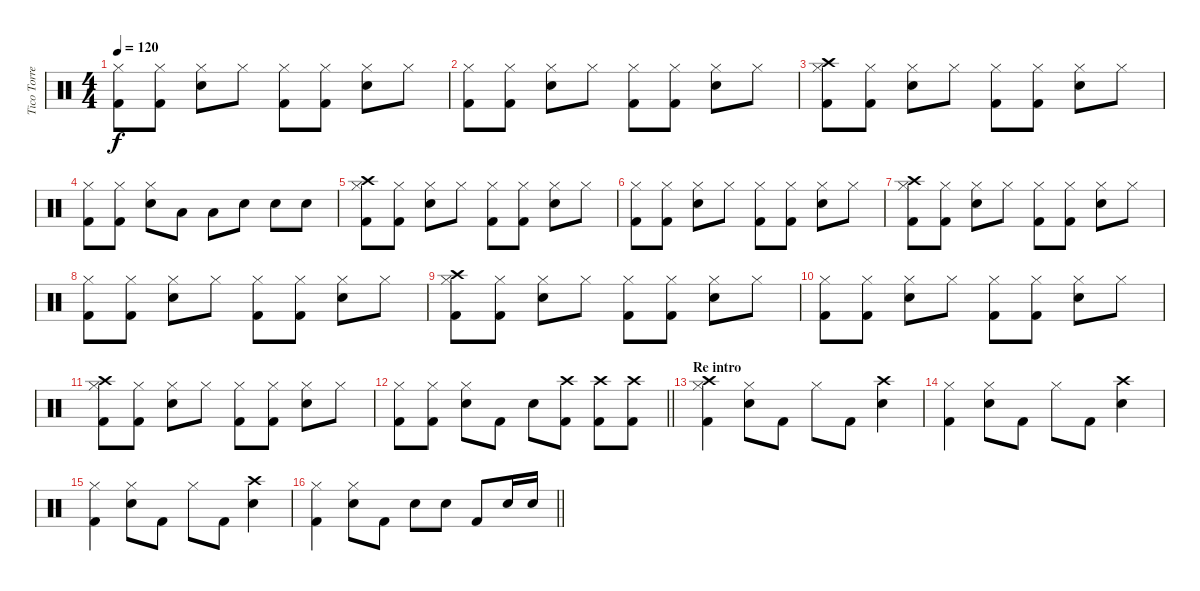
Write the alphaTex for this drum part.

\track ("Tico Torres (Drums)" "Tico Torre") {instrument percussion}
\staff {score}
\articulation defaults
\ts (4 4)
\tempo 120
\clef neutral
\ks c
("Hi-Hat (closed)" "Kick (hit) 2").8{dy f} ("Hi-Hat (closed)" "Kick (hit) 2").8 ("Hi-Hat (closed)" "Electric Snare (hit)").8 "Hi-Hat (closed)".8 ("Hi-Hat (closed)" "Kick (hit) 2").8 ("Hi-Hat (closed)" "Kick (hit) 2").8 ("Hi-Hat (closed)" "Electric Snare (hit)").8 "Hi-Hat (closed)".8 |
("Hi-Hat (closed)" "Kick (hit) 2").8 ("Hi-Hat (closed)" "Kick (hit) 2").8 ("Hi-Hat (closed)" "Electric Snare (hit)").8 "Hi-Hat (closed)".8 ("Hi-Hat (closed)" "Kick (hit) 2").8 ("Hi-Hat (closed)" "Kick (hit) 2").8 ("Hi-Hat (closed)" "Electric Snare (hit)").8 "Hi-Hat (closed)".8 |
("Crash high (hit)" "Hi-Hat (closed)" "Kick (hit) 2").8 ("Hi-Hat (closed)" "Kick (hit) 2").8 ("Hi-Hat (closed)" "Electric Snare (hit)").8 "Hi-Hat (closed)".8 ("Hi-Hat (closed)" "Kick (hit) 2").8 ("Hi-Hat (closed)" "Kick (hit) 2").8 ("Hi-Hat (closed)" "Electric Snare (hit)").8 "Hi-Hat (closed)".8 |
("Hi-Hat (closed)" "Kick (hit) 2").8 ("Hi-Hat (closed)" "Kick (hit) 2").8 ("Hi-Hat (closed)" "Electric Snare (hit)").8 "Low Tom (hit)".8 "Low Tom (hit)".8 "Electric Snare (hit)".8 "Electric Snare (hit)".8 "Electric Snare (hit)".8 |
("Crash high (hit)" "Hi-Hat (closed)" "Kick (hit) 2").8 ("Hi-Hat (closed)" "Kick (hit) 2").8 ("Hi-Hat (closed)" "Electric Snare (hit)").8 "Hi-Hat (closed)".8 ("Hi-Hat (closed)" "Kick (hit) 2").8 ("Hi-Hat (closed)" "Kick (hit) 2").8 ("Hi-Hat (closed)" "Electric Snare (hit)").8 "Hi-Hat (closed)".8 |
("Hi-Hat (closed)" "Kick (hit) 2").8 ("Hi-Hat (closed)" "Kick (hit) 2").8 ("Hi-Hat (closed)" "Electric Snare (hit)").8 "Hi-Hat (closed)".8 ("Hi-Hat (closed)" "Kick (hit) 2").8 ("Hi-Hat (closed)" "Kick (hit) 2").8 ("Hi-Hat (closed)" "Electric Snare (hit)").8 "Hi-Hat (closed)".8 |
("Crash high (hit)" "Hi-Hat (closed)" "Kick (hit) 2").8 ("Hi-Hat (closed)" "Kick (hit) 2").8 ("Hi-Hat (closed)" "Electric Snare (hit)").8 "Hi-Hat (closed)".8 ("Hi-Hat (closed)" "Kick (hit) 2").8 ("Hi-Hat (closed)" "Kick (hit) 2").8 ("Hi-Hat (closed)" "Electric Snare (hit)").8 "Hi-Hat (closed)".8 |
("Hi-Hat (closed)" "Kick (hit) 2").8 ("Hi-Hat (closed)" "Kick (hit) 2").8 ("Hi-Hat (closed)" "Electric Snare (hit)").8 "Hi-Hat (closed)".8 ("Hi-Hat (closed)" "Kick (hit) 2").8 ("Hi-Hat (closed)" "Kick (hit) 2").8 ("Hi-Hat (closed)" "Electric Snare (hit)").8 "Hi-Hat (closed)".8 |
("Crash high (hit)" "Hi-Hat (closed)" "Kick (hit) 2").8 ("Hi-Hat (closed)" "Kick (hit) 2").8 ("Hi-Hat (closed)" "Electric Snare (hit)").8 "Hi-Hat (closed)".8 ("Hi-Hat (closed)" "Kick (hit) 2").8 ("Hi-Hat (closed)" "Kick (hit) 2").8 ("Hi-Hat (closed)" "Electric Snare (hit)").8 "Hi-Hat (closed)".8 |
("Hi-Hat (closed)" "Kick (hit) 2").8 ("Hi-Hat (closed)" "Kick (hit) 2").8 ("Hi-Hat (closed)" "Electric Snare (hit)").8 "Hi-Hat (closed)".8 ("Hi-Hat (closed)" "Kick (hit) 2").8 ("Hi-Hat (closed)" "Kick (hit) 2").8 ("Hi-Hat (closed)" "Electric Snare (hit)").8 "Hi-Hat (closed)".8 |
("Crash high (hit)" "Hi-Hat (closed)" "Kick (hit) 2").8 ("Hi-Hat (closed)" "Kick (hit) 2").8 ("Hi-Hat (closed)" "Electric Snare (hit)").8 "Hi-Hat (closed)".8 ("Hi-Hat (closed)" "Kick (hit) 2").8 ("Hi-Hat (closed)" "Kick (hit) 2").8 ("Hi-Hat (closed)" "Electric Snare (hit)").8 "Hi-Hat (closed)".8 |
\barLineRight lightlight
("Hi-Hat (closed)" "Kick (hit) 2").8 ("Hi-Hat (closed)" "Kick (hit) 2").8 ("Hi-Hat (closed)" "Electric Snare (hit)").8 "Kick (hit) 2".8 "Electric Snare (hit)".8 ("Crash high (hit)" "Kick (hit) 2").8 ("Crash high (hit)" "Kick (hit) 2").8 ("Crash high (hit)" "Kick (hit) 2").8 |
\section ("" "Re intro")
("Crash high (hit)" "Hi-Hat (closed)" "Kick (hit) 2").4 ("Hi-Hat (closed)" "Electric Snare (hit)").8 "Kick (hit) 2".8 "Hi-Hat (closed)".8 "Kick (hit) 2".8 ("Crash high (hit)" "Electric Snare (hit)").4 |
("Hi-Hat (closed)" "Kick (hit) 2").4 ("Hi-Hat (closed)" "Electric Snare (hit)").8 "Kick (hit) 2".8 "Hi-Hat (closed)".8 "Kick (hit) 2".8 ("Crash high (hit)" "Electric Snare (hit)").4 |
("Hi-Hat (closed)" "Kick (hit) 2").4 ("Hi-Hat (closed)" "Electric Snare (hit)").8 "Kick (hit) 2".8 "Hi-Hat (closed)".8 "Kick (hit) 2".8 ("Crash high (hit)" "Electric Snare (hit)").4 |
\barLineRight lightlight
("Hi-Hat (closed)" "Kick (hit) 2").4 ("Hi-Hat (closed)" "Electric Snare (hit)").8 "Kick (hit) 2".8 "Electric Snare (hit)".8 "Electric Snare (hit)".8 "Kick (hit) 2".8 "Electric Snare (hit)".16 "Electric Snare (hit)".16
